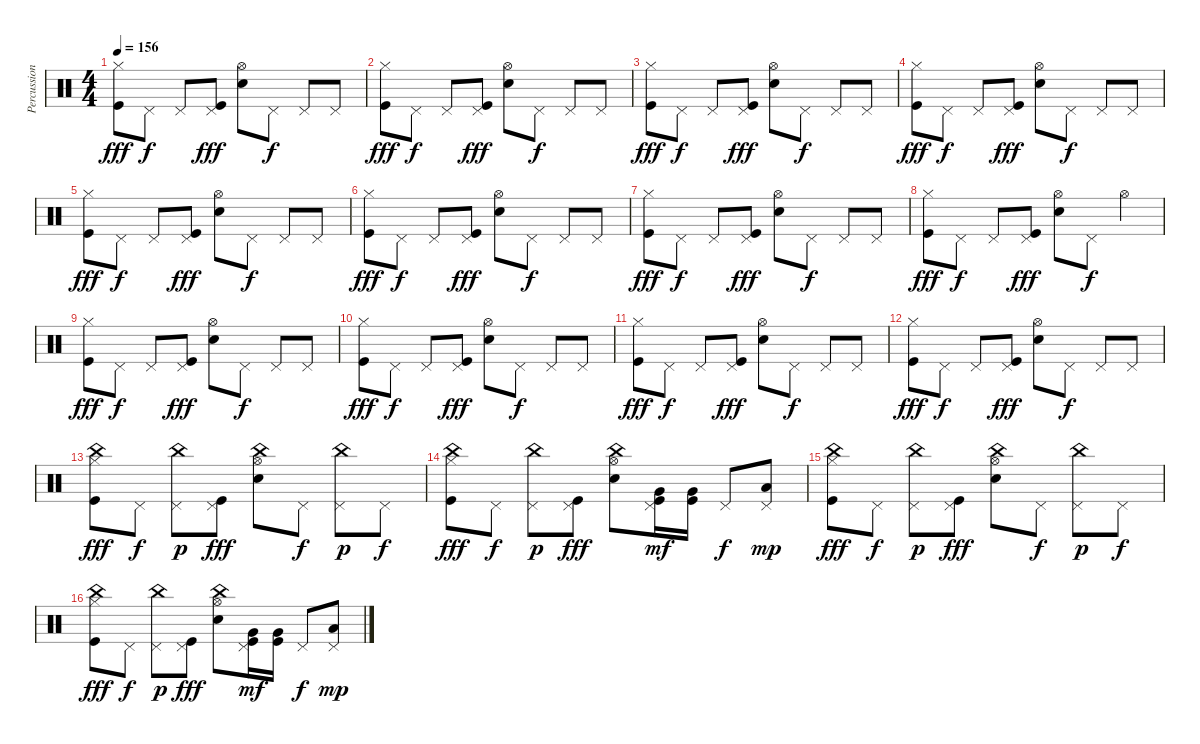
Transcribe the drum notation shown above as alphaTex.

\track ("Percussion" "Percussion") {instrument percussion}
\staff {score}
\articulation defaults
\ts (4 4)
\tempo 156
\clef neutral
\ks c
("Hi-Hat (closed)" "Kick (hit)").8{dy fff} "Pedal Hi-Hat (hit)".8{dy f} "Pedal Hi-Hat (hit)".8 ("Pedal Hi-Hat (hit)" "Kick (hit)").8{dy fff} ("Hi-Hat (open)" "Snare (hit) 2").8 "Pedal Hi-Hat (hit)".8{dy f} "Pedal Hi-Hat (hit)".8 "Pedal Hi-Hat (hit)".8 |
("Hi-Hat (closed)" "Kick (hit)").8{dy fff} "Pedal Hi-Hat (hit)".8{dy f} "Pedal Hi-Hat (hit)".8 ("Pedal Hi-Hat (hit)" "Kick (hit)").8{dy fff} ("Hi-Hat (open)" "Snare (hit) 2").8 "Pedal Hi-Hat (hit)".8{dy f} "Pedal Hi-Hat (hit)".8 "Pedal Hi-Hat (hit)".8 |
("Hi-Hat (closed)" "Kick (hit)").8{dy fff} "Pedal Hi-Hat (hit)".8{dy f} "Pedal Hi-Hat (hit)".8 ("Pedal Hi-Hat (hit)" "Kick (hit)").8{dy fff} ("Hi-Hat (open)" "Snare (hit) 2").8 "Pedal Hi-Hat (hit)".8{dy f} "Pedal Hi-Hat (hit)".8 "Pedal Hi-Hat (hit)".8 |
("Hi-Hat (closed)" "Kick (hit)").8{dy fff} "Pedal Hi-Hat (hit)".8{dy f} "Pedal Hi-Hat (hit)".8 ("Pedal Hi-Hat (hit)" "Kick (hit)").8{dy fff} ("Hi-Hat (open)" "Snare (hit) 2").8 "Pedal Hi-Hat (hit)".8{dy f} "Pedal Hi-Hat (hit)".8 "Pedal Hi-Hat (hit)".8 |
("Hi-Hat (closed)" "Kick (hit)").8{dy fff} "Pedal Hi-Hat (hit)".8{dy f} "Pedal Hi-Hat (hit)".8 ("Pedal Hi-Hat (hit)" "Kick (hit)").8{dy fff} ("Hi-Hat (open)" "Snare (hit) 2").8 "Pedal Hi-Hat (hit)".8{dy f} "Pedal Hi-Hat (hit)".8 "Pedal Hi-Hat (hit)".8 |
("Hi-Hat (closed)" "Kick (hit)").8{dy fff} "Pedal Hi-Hat (hit)".8{dy f} "Pedal Hi-Hat (hit)".8 ("Pedal Hi-Hat (hit)" "Kick (hit)").8{dy fff} ("Hi-Hat (open)" "Snare (hit) 2").8 "Pedal Hi-Hat (hit)".8{dy f} "Pedal Hi-Hat (hit)".8 "Pedal Hi-Hat (hit)".8 |
("Hi-Hat (closed)" "Kick (hit)").8{dy fff} "Pedal Hi-Hat (hit)".8{dy f} "Pedal Hi-Hat (hit)".8 ("Pedal Hi-Hat (hit)" "Kick (hit)").8{dy fff} ("Hi-Hat (open)" "Snare (hit) 2").8 "Pedal Hi-Hat (hit)".8{dy f} "Pedal Hi-Hat (hit)".8 "Pedal Hi-Hat (hit)".8 |
("Hi-Hat (closed)" "Kick (hit)").8{dy fff} "Pedal Hi-Hat (hit)".8{dy f} "Pedal Hi-Hat (hit)".8 ("Pedal Hi-Hat (hit)" "Kick (hit)").8{dy fff} ("Hi-Hat (open)" "Snare (hit) 2").8 "Pedal Hi-Hat (hit)".8{dy f} "Hi-Hat (open)".4 |
("Hi-Hat (closed)" "Kick (hit)").8{dy fff} "Pedal Hi-Hat (hit)".8{dy f} "Pedal Hi-Hat (hit)".8 ("Pedal Hi-Hat (hit)" "Kick (hit)").8{dy fff} ("Hi-Hat (open)" "Snare (hit) 2").8 "Pedal Hi-Hat (hit)".8{dy f} "Pedal Hi-Hat (hit)".8 "Pedal Hi-Hat (hit)".8 |
("Hi-Hat (closed)" "Kick (hit)").8{dy fff} "Pedal Hi-Hat (hit)".8{dy f} "Pedal Hi-Hat (hit)".8 ("Pedal Hi-Hat (hit)" "Kick (hit)").8{dy fff} ("Hi-Hat (open)" "Snare (hit) 2").8 "Pedal Hi-Hat (hit)".8{dy f} "Pedal Hi-Hat (hit)".8 "Pedal Hi-Hat (hit)".8 |
("Hi-Hat (closed)" "Kick (hit)").8{dy fff} "Pedal Hi-Hat (hit)".8{dy f} "Pedal Hi-Hat (hit)".8 ("Pedal Hi-Hat (hit)" "Kick (hit)").8{dy fff} ("Hi-Hat (open)" "Snare (hit) 2").8 "Pedal Hi-Hat (hit)".8{dy f} "Pedal Hi-Hat (hit)".8 "Pedal Hi-Hat (hit)".8 |
("Hi-Hat (closed)" "Kick (hit)").8{dy fff} "Pedal Hi-Hat (hit)".8{dy f} "Pedal Hi-Hat (hit)".8 ("Pedal Hi-Hat (hit)" "Kick (hit)").8{dy fff} ("Hi-Hat (open)" "Snare (hit) 2").8 "Pedal Hi-Hat (hit)".8{dy f} "Pedal Hi-Hat (hit)".8 "Pedal Hi-Hat (hit)".8 |
("China (hit)" "Hi-Hat (closed)" "Kick (hit)").8{dy fff} "Pedal Hi-Hat (hit)".8{dy f} ("China (hit)" "Pedal Hi-Hat (hit)").8{dy p} ("Pedal Hi-Hat (hit)" "Kick (hit)").8{dy fff} ("China (hit)" "Hi-Hat (open)" "Snare (hit) 2").8 "Pedal Hi-Hat (hit)".8{dy f} ("China (hit)" "Pedal Hi-Hat (hit)").8{dy p} "Pedal Hi-Hat (hit)".8{dy f} |
("China (hit)" "Hi-Hat (closed)" "Kick (hit)").8{dy fff} "Pedal Hi-Hat (hit)".8{dy f} ("China (hit)" "Pedal Hi-Hat (hit)").8{dy p} ("Pedal Hi-Hat (hit)" "Kick (hit)").8{dy fff} ("China (hit)" "Hi-Hat (open)" "Snare (hit) 2").8 ("Very Low Tom (hit)" "Pedal Hi-Hat (hit)" "Kick (hit)").16{dy mf} ("Very Low Tom (hit)" "Kick (hit)").16 "Pedal Hi-Hat (hit)".8{dy f} ("Low Tom (hit)" "Pedal Hi-Hat (hit)").8{dy mp} |
("China (hit)" "Hi-Hat (closed)" "Kick (hit)").8{dy fff} "Pedal Hi-Hat (hit)".8{dy f} ("China (hit)" "Pedal Hi-Hat (hit)").8{dy p} ("Pedal Hi-Hat (hit)" "Kick (hit)").8{dy fff} ("China (hit)" "Hi-Hat (open)" "Snare (hit) 2").8 "Pedal Hi-Hat (hit)".8{dy f} ("China (hit)" "Pedal Hi-Hat (hit)").8{dy p} "Pedal Hi-Hat (hit)".8{dy f} |
("China (hit)" "Hi-Hat (closed)" "Kick (hit)").8{dy fff} "Pedal Hi-Hat (hit)".8{dy f} ("China (hit)" "Pedal Hi-Hat (hit)").8{dy p} ("Pedal Hi-Hat (hit)" "Kick (hit)").8{dy fff} ("China (hit)" "Hi-Hat (open)" "Snare (hit) 2").8 ("Very Low Tom (hit)" "Pedal Hi-Hat (hit)" "Kick (hit)").16{dy mf} ("Very Low Tom (hit)" "Kick (hit)").16 "Pedal Hi-Hat (hit)".8{dy f} ("Low Tom (hit)" "Pedal Hi-Hat (hit)").8{dy mp}
